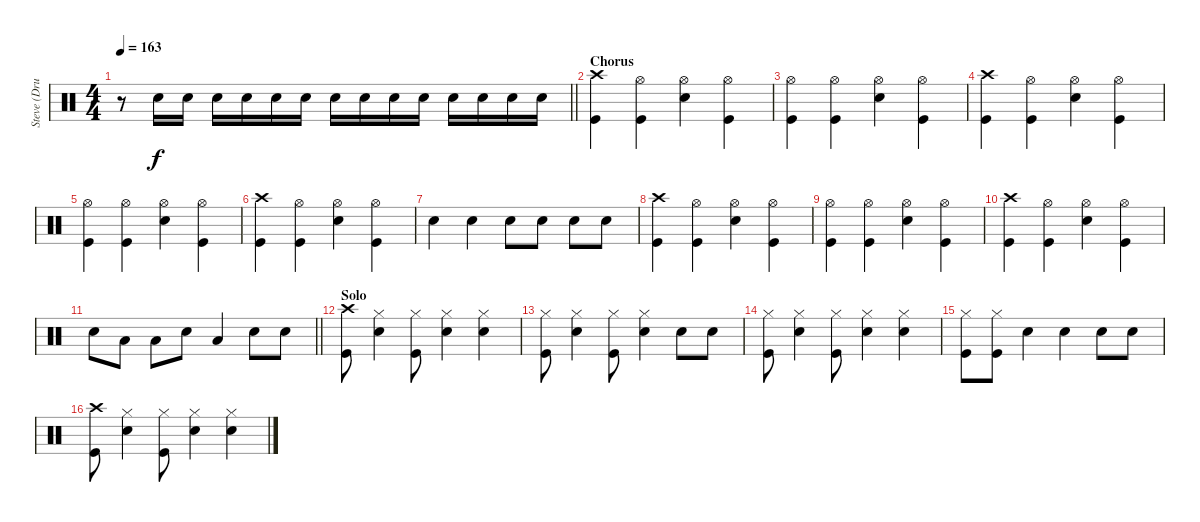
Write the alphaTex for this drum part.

\track ("Steve (Drums)" "Steve (Dru") {instrument percussion}
\staff {score}
\articulation defaults
\ts (4 4)
\tempo 163
\clef neutral
\barLineRight lightlight
\ks c
r.8{dy f} "Electric Snare (hit)".16 "Electric Snare (hit)".16 "Electric Snare (hit)".16 "Electric Snare (hit)".16 "Electric Snare (hit)".16 "Electric Snare (hit)".16 "Electric Snare (hit)".16 "Electric Snare (hit)".16 "Electric Snare (hit)".16 "Electric Snare (hit)".16 "Electric Snare (hit)".16 "Electric Snare (hit)".16 "Electric Snare (hit)".16 "Electric Snare (hit)".16 |
\section ("" "Chorus")
("Crash high (hit)" "Kick (hit)").4 ("Hi-Hat (open)" "Kick (hit)").4 ("Hi-Hat (open)" "Electric Snare (hit)").4 ("Hi-Hat (open)" "Kick (hit)").4 |
("Hi-Hat (open)" "Kick (hit)").4 ("Hi-Hat (open)" "Kick (hit)").4 ("Hi-Hat (open)" "Electric Snare (hit)").4 ("Hi-Hat (open)" "Kick (hit)").4 |
("Crash high (hit)" "Kick (hit)").4 ("Hi-Hat (open)" "Kick (hit)").4 ("Hi-Hat (open)" "Electric Snare (hit)").4 ("Hi-Hat (open)" "Kick (hit)").4 |
("Hi-Hat (open)" "Kick (hit)").4 ("Hi-Hat (open)" "Kick (hit)").4 ("Hi-Hat (open)" "Electric Snare (hit)").4 ("Hi-Hat (open)" "Kick (hit)").4 |
("Crash high (hit)" "Kick (hit)").4 ("Hi-Hat (open)" "Kick (hit)").4 ("Hi-Hat (open)" "Electric Snare (hit)").4 ("Hi-Hat (open)" "Kick (hit)").4 |
"Electric Snare (hit)".4 "Electric Snare (hit)".4 "Electric Snare (hit)".8 "Electric Snare (hit)".8 "Electric Snare (hit)".8 "Electric Snare (hit)".8 |
("Crash high (hit)" "Kick (hit)").4 ("Hi-Hat (open)" "Kick (hit)").4 ("Hi-Hat (open)" "Electric Snare (hit)").4 ("Hi-Hat (open)" "Kick (hit)").4 |
("Hi-Hat (open)" "Kick (hit)").4 ("Hi-Hat (open)" "Kick (hit)").4 ("Hi-Hat (open)" "Electric Snare (hit)").4 ("Hi-Hat (open)" "Kick (hit)").4 |
("Crash high (hit)" "Kick (hit)").4 ("Hi-Hat (open)" "Kick (hit)").4 ("Hi-Hat (open)" "Electric Snare (hit)").4 ("Hi-Hat (open)" "Kick (hit)").4 |
\barLineRight lightlight "Electric Snare (hit)".8 "Low Tom (hit)".8 "Low Tom (hit)".8 "Electric Snare (hit)".8 "Low Tom (hit)".4 "Electric Snare (hit)".8 "Electric Snare (hit)".8
|
\section ("" "Solo")
("Crash high (hit)" "Kick (hit)").8 ("Hi-Hat (closed)" "Electric Snare (hit)").4 ("Hi-Hat (closed)" "Kick (hit)").8 ("Hi-Hat (closed)" "Electric Snare (hit)").4 ("Hi-Hat (closed)" "Electric Snare (hit)").4 |
("Hi-Hat (closed)" "Kick (hit)").8 ("Hi-Hat (closed)" "Electric Snare (hit)").4 ("Hi-Hat (closed)" "Kick (hit)").8 ("Hi-Hat (closed)" "Electric Snare (hit)").4 "Electric Snare (hit)".8 "Electric Snare (hit)".8 |
("Hi-Hat (closed)" "Kick (hit)").8 ("Hi-Hat (closed)" "Electric Snare (hit)").4 ("Hi-Hat (closed)" "Kick (hit)").8 ("Hi-Hat (closed)" "Electric Snare (hit)").4 ("Hi-Hat (closed)" "Electric Snare (hit)").4 |
("Hi-Hat (closed)" "Kick (hit)").8 ("Hi-Hat (closed)" "Kick (hit)").8 "Electric Snare (hit)".4 "Electric Snare (hit)".4 "Electric Snare (hit)".8 "Electric Snare (hit)".8 |
("Crash high (hit)" "Kick (hit)").8 ("Hi-Hat (closed)" "Electric Snare (hit)").4 ("Hi-Hat (closed)" "Kick (hit)").8 ("Hi-Hat (closed)" "Electric Snare (hit)").4 ("Hi-Hat (closed)" "Electric Snare (hit)").4
